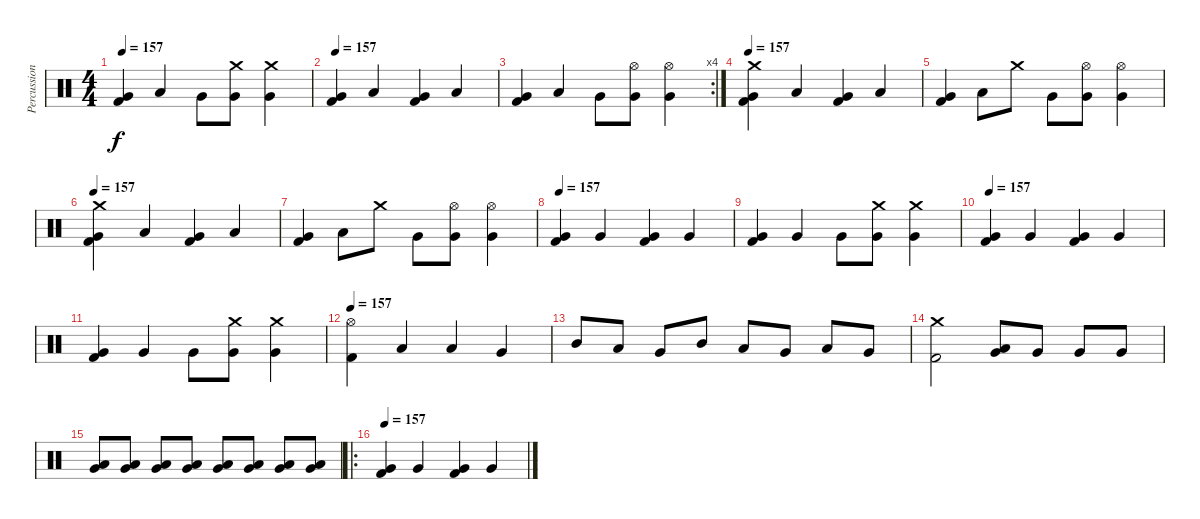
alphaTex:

\track ("Percussion" "Percussion") {instrument percussion}
\staff {score}
\articulation defaults
\ts (4 4)
\tempo 157
\clef neutral
\ks c
("Kick (hit) 2" "Very Low Tom (hit)").4{dy f} "Low Floor Tom (hit)".4 "Very Low Tom (hit)".8 ("Very Low Tom (hit)" "Crash medium (hit)").8 ("Very Low Tom (hit)" "Crash medium (hit)").4 |
\tempo 157
("Kick (hit) 2" "Very Low Tom (hit)").4 "Low Floor Tom (hit)".4 ("Kick (hit) 2" "Very Low Tom (hit)").4 "Low Floor Tom (hit)".4 |
\rc 4
("Kick (hit) 2" "Very Low Tom (hit)").4 "Low Floor Tom (hit)".4 "Very Low Tom (hit)".8 ("Very Low Tom (hit)" "Hi-Hat (open)").8 ("Very Low Tom (hit)" "Hi-Hat (open)").4 |
\tempo 157
("Kick (hit) 2" "Very Low Tom (hit)" "Crash medium (hit)").4 "Low Floor Tom (hit)".4 ("Kick (hit) 2" "Very Low Tom (hit)").4 "Low Floor Tom (hit)".4 |
("Kick (hit) 2" "Very Low Tom (hit)").4 "Low Floor Tom (hit)".8 "Crash medium (hit)".8 "Very Low Tom (hit)".8 ("Very Low Tom (hit)" "Hi-Hat (open)").8 ("Very Low Tom (hit)" "Hi-Hat (open)").4 |
\tempo 157
("Kick (hit) 2" "Very Low Tom (hit)" "Crash medium (hit)").4 "Low Floor Tom (hit)".4 ("Kick (hit) 2" "Very Low Tom (hit)").4 "Low Floor Tom (hit)".4 |
("Kick (hit) 2" "Very Low Tom (hit)").4 "Low Floor Tom (hit)".8 "Crash medium (hit)".8 "Very Low Tom (hit)".8 ("Very Low Tom (hit)" "Hi-Hat (open)").8 ("Very Low Tom (hit)" "Hi-Hat (open)").4 |
\tempo 157
("Kick (hit) 2" "Very Low Tom (hit)").4 "Very Low Tom (hit)".4 ("Kick (hit) 2" "Very Low Tom (hit)").4 "Very Low Tom (hit)".4 |
("Kick (hit) 2" "Very Low Tom (hit)").4 "Very Low Tom (hit)".4 "Very Low Tom (hit)".8 ("Very Low Tom (hit)" "Crash medium (hit)").8 ("Very Low Tom (hit)" "Crash medium (hit)").4 |
\tempo 157
("Kick (hit) 2" "Very Low Tom (hit)").4 "Very Low Tom (hit)".4 ("Kick (hit) 2" "Very Low Tom (hit)").4 "Very Low Tom (hit)".4 |
("Kick (hit) 2" "Very Low Tom (hit)").4 "Very Low Tom (hit)".4 "Very Low Tom (hit)".8 ("Very Low Tom (hit)" "Crash medium (hit)").8 ("Very Low Tom (hit)" "Crash medium (hit)").4 |
\tempo 157
("Kick (hit) 2" "Hi-Hat (open)").4 "Low Tom (hit)".4 "Low Tom (hit)".4 "Very Low Tom (hit)".4 |
"Mid Tom (hit)".8 "Low Tom (hit)".8 "Very Low Tom (hit)".8 "Mid Tom (hit)".8 "Low Tom (hit)".8 "Very Low Tom (hit)".8 "Low Tom (hit)".8 "Very Low Tom (hit)".8 |
("Kick (hit) 2" "Crash medium (hit)").2 ("Very Low Tom (hit)" "Low Tom (hit)").8 "Very Low Tom (hit)".8 "Very Low Tom (hit)".8 "Very Low Tom (hit)".8 |
("Very Low Tom (hit)" "Low Tom (hit)").8 ("Very Low Tom (hit)" "Low Tom (hit)").8 ("Very Low Tom (hit)" "Low Tom (hit)").8 ("Very Low Tom (hit)" "Low Tom (hit)").8 ("Very Low Tom (hit)" "Low Tom (hit)").8 ("Very Low Tom (hit)" "Low Tom (hit)").8 ("Very Low Tom (hit)" "Low Tom (hit)").8 ("Very Low Tom (hit)" "Low Tom (hit)").8 |
\ro
\tempo 157
("Kick (hit) 2" "Very Low Tom (hit)").4 "Very Low Tom (hit)".4 ("Kick (hit) 2" "Very Low Tom (hit)").4 "Very Low Tom (hit)".4
